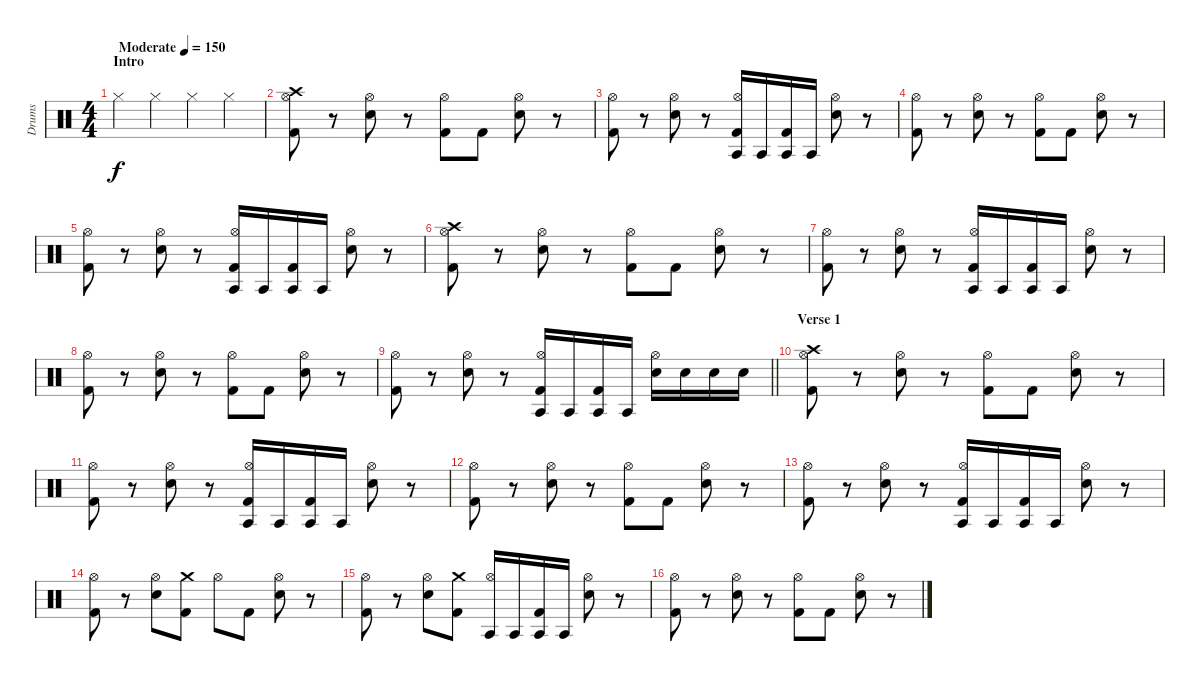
\track ("Drums" "Drums") {instrument percussion}
\staff {score}
\articulation defaults
\ts (4 4)
\section ("" "Intro")
\tempo (150 "Moderate")
\clef neutral
\ks c "Hi-Hat (closed)".4{dy f} "Hi-Hat (closed)".4 "Hi-Hat (closed)".4 "Hi-Hat (closed)".4
|
("Crash high (hit)" "Hi-Hat (open)" "Kick (hit) 2").8 r.8 ("Hi-Hat (open)" "Snare (hit) 2").8 r.8 ("Hi-Hat (open)" "Kick (hit) 2").8 "Kick (hit) 2".8 ("Hi-Hat (open)" "Snare (hit) 2").8 r.8 |
("Hi-Hat (open)" "Kick (hit) 2").8 r.8 ("Hi-Hat (open)" "Snare (hit) 2").8 r.8 ("Agogo tow (hit)" "Hi-Hat (open)" "Kick (hit) 2").16 "Agogo tow (hit)".16 ("Agogo tow (hit)" "Kick (hit) 2").16 "Agogo tow (hit)".16 ("Hi-Hat (open)" "Snare (hit) 2").8 r.8 |
("Hi-Hat (open)" "Kick (hit) 2").8 r.8 ("Hi-Hat (open)" "Snare (hit) 2").8 r.8 ("Hi-Hat (open)" "Kick (hit) 2").8 "Kick (hit) 2".8 ("Hi-Hat (open)" "Snare (hit) 2").8 r.8 |
("Hi-Hat (open)" "Kick (hit) 2").8 r.8 ("Hi-Hat (open)" "Snare (hit) 2").8 r.8 ("Agogo tow (hit)" "Hi-Hat (open)" "Kick (hit) 2").16 "Agogo tow (hit)".16 ("Agogo tow (hit)" "Kick (hit) 2").16 "Agogo tow (hit)".16 ("Hi-Hat (open)" "Snare (hit) 2").8 r.8 |
("Crash high (hit)" "Hi-Hat (open)" "Kick (hit) 2").8 r.8 ("Hi-Hat (open)" "Snare (hit) 2").8 r.8 ("Hi-Hat (open)" "Kick (hit) 2").8 "Kick (hit) 2".8 ("Hi-Hat (open)" "Snare (hit) 2").8 r.8 |
("Hi-Hat (open)" "Kick (hit) 2").8 r.8 ("Hi-Hat (open)" "Snare (hit) 2").8 r.8 ("Agogo tow (hit)" "Hi-Hat (open)" "Kick (hit) 2").16 "Agogo tow (hit)".16 ("Agogo tow (hit)" "Kick (hit) 2").16 "Agogo tow (hit)".16 ("Hi-Hat (open)" "Snare (hit) 2").8 r.8 |
("Hi-Hat (open)" "Kick (hit) 2").8 r.8 ("Hi-Hat (open)" "Snare (hit) 2").8 r.8 ("Hi-Hat (open)" "Kick (hit) 2").8 "Kick (hit) 2".8 ("Hi-Hat (open)" "Snare (hit) 2").8 r.8 |
\barLineRight lightlight
("Hi-Hat (open)" "Kick (hit) 2").8 r.8 ("Hi-Hat (open)" "Snare (hit) 2").8 r.8 ("Agogo tow (hit)" "Hi-Hat (open)" "Kick (hit) 2").16 "Agogo tow (hit)".16 ("Agogo tow (hit)" "Kick (hit) 2").16 "Agogo tow (hit)".16 ("Hi-Hat (open)" "Snare (hit) 2").16 "Snare (hit) 2".16 "Snare (hit) 2".16 "Snare (hit) 2".16 |
\section ("" "Verse 1")
("Crash high (hit)" "Hi-Hat (open)" "Kick (hit) 2").8 r.8 ("Hi-Hat (open)" "Snare (hit) 2").8 r.8 ("Hi-Hat (open)" "Kick (hit) 2").8 "Kick (hit) 2".8 ("Hi-Hat (open)" "Snare (hit) 2").8 r.8 |
("Hi-Hat (open)" "Kick (hit) 2").8 r.8 ("Hi-Hat (open)" "Snare (hit) 2").8 r.8 ("Agogo tow (hit)" "Hi-Hat (open)" "Kick (hit) 2").16 "Agogo tow (hit)".16 ("Agogo tow (hit)" "Kick (hit) 2").16 "Agogo tow (hit)".16 ("Hi-Hat (open)" "Snare (hit) 2").8 r.8 |
("Hi-Hat (open)" "Kick (hit) 2").8 r.8 ("Hi-Hat (open)" "Snare (hit) 2").8 r.8 ("Hi-Hat (open)" "Kick (hit) 2").8 "Kick (hit) 2".8 ("Hi-Hat (open)" "Snare (hit) 2").8 r.8 |
("Hi-Hat (open)" "Kick (hit) 2").8 r.8 ("Hi-Hat (open)" "Snare (hit) 2").8 r.8 ("Agogo tow (hit)" "Hi-Hat (open)" "Kick (hit) 2").16 "Agogo tow (hit)".16 ("Agogo tow (hit)" "Kick (hit) 2").16 "Agogo tow (hit)".16 ("Hi-Hat (open)" "Snare (hit) 2").8 r.8 |
("Hi-Hat (open)" "Kick (hit) 2").8 r.8 ("Hi-Hat (open)" "Snare (hit) 2").8 ("Crash medium (hit)" "Kick (hit) 2").8 "Hi-Hat (open)".8 "Kick (hit) 2".8 ("Hi-Hat (open)" "Snare (hit) 2").8 r.8 |
("Hi-Hat (open)" "Kick (hit) 2").8 r.8 ("Hi-Hat (open)" "Snare (hit) 2").8 ("Crash medium (hit)" "Kick (hit) 2").8 ("Agogo tow (hit)" "Hi-Hat (open)").16 "Agogo tow (hit)".16 ("Agogo tow (hit)" "Kick (hit) 2").16 "Agogo tow (hit)".16 ("Hi-Hat (open)" "Snare (hit) 2").8 r.8 |
("Hi-Hat (open)" "Kick (hit) 2").8 r.8 ("Hi-Hat (open)" "Snare (hit) 2").8 r.8 ("Hi-Hat (open)" "Kick (hit) 2").8 "Kick (hit) 2".8 ("Hi-Hat (open)" "Snare (hit) 2").8 r.8
